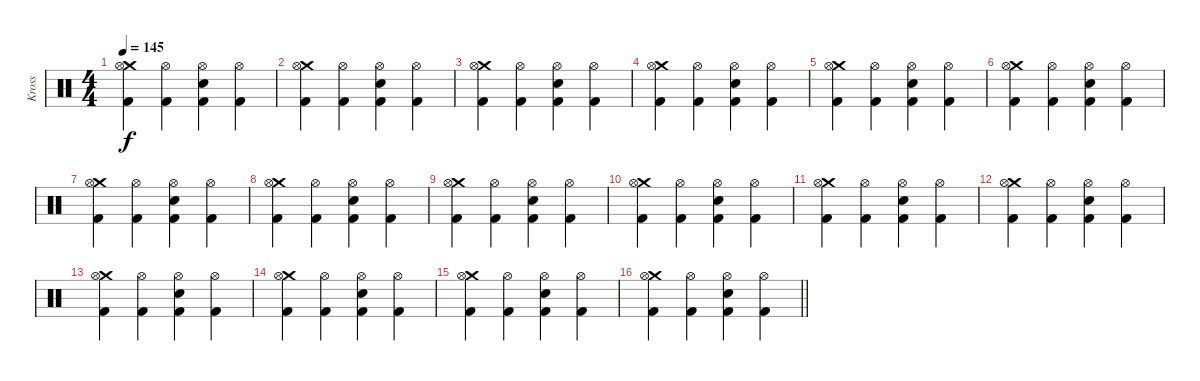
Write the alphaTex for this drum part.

\track ("Kross" "Kross") {instrument percussion}
\staff {score}
\articulation defaults
\ts (4 4)
\tempo 145
\clef neutral
\ks c
("Crash medium (hit)" "Hi-Hat (open)" "Kick (hit) 2").4{dy f} ("Hi-Hat (open)" "Kick (hit) 2").4 ("Hi-Hat (open)" "Electric Snare (hit)" "Kick (hit) 2").4 ("Hi-Hat (open)" "Kick (hit) 2").4 |
("Crash medium (hit)" "Hi-Hat (open)" "Kick (hit) 2").4 ("Hi-Hat (open)" "Kick (hit) 2").4 ("Hi-Hat (open)" "Electric Snare (hit)" "Kick (hit) 2").4 ("Hi-Hat (open)" "Kick (hit) 2").4 |
("Crash medium (hit)" "Hi-Hat (open)" "Kick (hit) 2").4 ("Hi-Hat (open)" "Kick (hit) 2").4 ("Hi-Hat (open)" "Electric Snare (hit)" "Kick (hit) 2").4 ("Hi-Hat (open)" "Kick (hit) 2").4 |
("Crash medium (hit)" "Hi-Hat (open)" "Kick (hit) 2").4 ("Hi-Hat (open)" "Kick (hit) 2").4 ("Hi-Hat (open)" "Electric Snare (hit)" "Kick (hit) 2").4 ("Hi-Hat (open)" "Kick (hit) 2").4 |
("Crash medium (hit)" "Hi-Hat (open)" "Kick (hit) 2").4 ("Hi-Hat (open)" "Kick (hit) 2").4 ("Hi-Hat (open)" "Electric Snare (hit)" "Kick (hit) 2").4 ("Hi-Hat (open)" "Kick (hit) 2").4 |
("Crash medium (hit)" "Hi-Hat (open)" "Kick (hit) 2").4 ("Hi-Hat (open)" "Kick (hit) 2").4 ("Hi-Hat (open)" "Electric Snare (hit)" "Kick (hit) 2").4 ("Hi-Hat (open)" "Kick (hit) 2").4 |
("Crash medium (hit)" "Hi-Hat (open)" "Kick (hit) 2").4 ("Hi-Hat (open)" "Kick (hit) 2").4 ("Hi-Hat (open)" "Electric Snare (hit)" "Kick (hit) 2").4 ("Hi-Hat (open)" "Kick (hit) 2").4 |
("Crash medium (hit)" "Hi-Hat (open)" "Kick (hit) 2").4 ("Hi-Hat (open)" "Kick (hit) 2").4 ("Hi-Hat (open)" "Electric Snare (hit)" "Kick (hit) 2").4 ("Hi-Hat (open)" "Kick (hit) 2").4 |
("Crash medium (hit)" "Hi-Hat (open)" "Kick (hit) 2").4 ("Hi-Hat (open)" "Kick (hit) 2").4 ("Hi-Hat (open)" "Electric Snare (hit)" "Kick (hit) 2").4 ("Hi-Hat (open)" "Kick (hit) 2").4 |
("Crash medium (hit)" "Hi-Hat (open)" "Kick (hit) 2").4 ("Hi-Hat (open)" "Kick (hit) 2").4 ("Hi-Hat (open)" "Electric Snare (hit)" "Kick (hit) 2").4 ("Hi-Hat (open)" "Kick (hit) 2").4 |
("Crash medium (hit)" "Hi-Hat (open)" "Kick (hit) 2").4 ("Hi-Hat (open)" "Kick (hit) 2").4 ("Hi-Hat (open)" "Electric Snare (hit)" "Kick (hit) 2").4 ("Hi-Hat (open)" "Kick (hit) 2").4 |
("Crash medium (hit)" "Hi-Hat (open)" "Kick (hit) 2").4 ("Hi-Hat (open)" "Kick (hit) 2").4 ("Hi-Hat (open)" "Electric Snare (hit)" "Kick (hit) 2").4 ("Hi-Hat (open)" "Kick (hit) 2").4 |
("Crash medium (hit)" "Hi-Hat (open)" "Kick (hit) 2").4 ("Hi-Hat (open)" "Kick (hit) 2").4 ("Hi-Hat (open)" "Electric Snare (hit)" "Kick (hit) 2").4 ("Hi-Hat (open)" "Kick (hit) 2").4 |
("Crash medium (hit)" "Hi-Hat (open)" "Kick (hit) 2").4 ("Hi-Hat (open)" "Kick (hit) 2").4 ("Hi-Hat (open)" "Electric Snare (hit)" "Kick (hit) 2").4 ("Hi-Hat (open)" "Kick (hit) 2").4 |
("Crash medium (hit)" "Hi-Hat (open)" "Kick (hit) 2").4 ("Hi-Hat (open)" "Kick (hit) 2").4 ("Hi-Hat (open)" "Electric Snare (hit)" "Kick (hit) 2").4 ("Hi-Hat (open)" "Kick (hit) 2").4 |
\barLineRight lightlight
("Crash medium (hit)" "Hi-Hat (open)" "Kick (hit) 2").4 ("Hi-Hat (open)" "Kick (hit) 2").4 ("Hi-Hat (open)" "Electric Snare (hit)" "Kick (hit) 2").4 ("Hi-Hat (open)" "Kick (hit) 2").4
